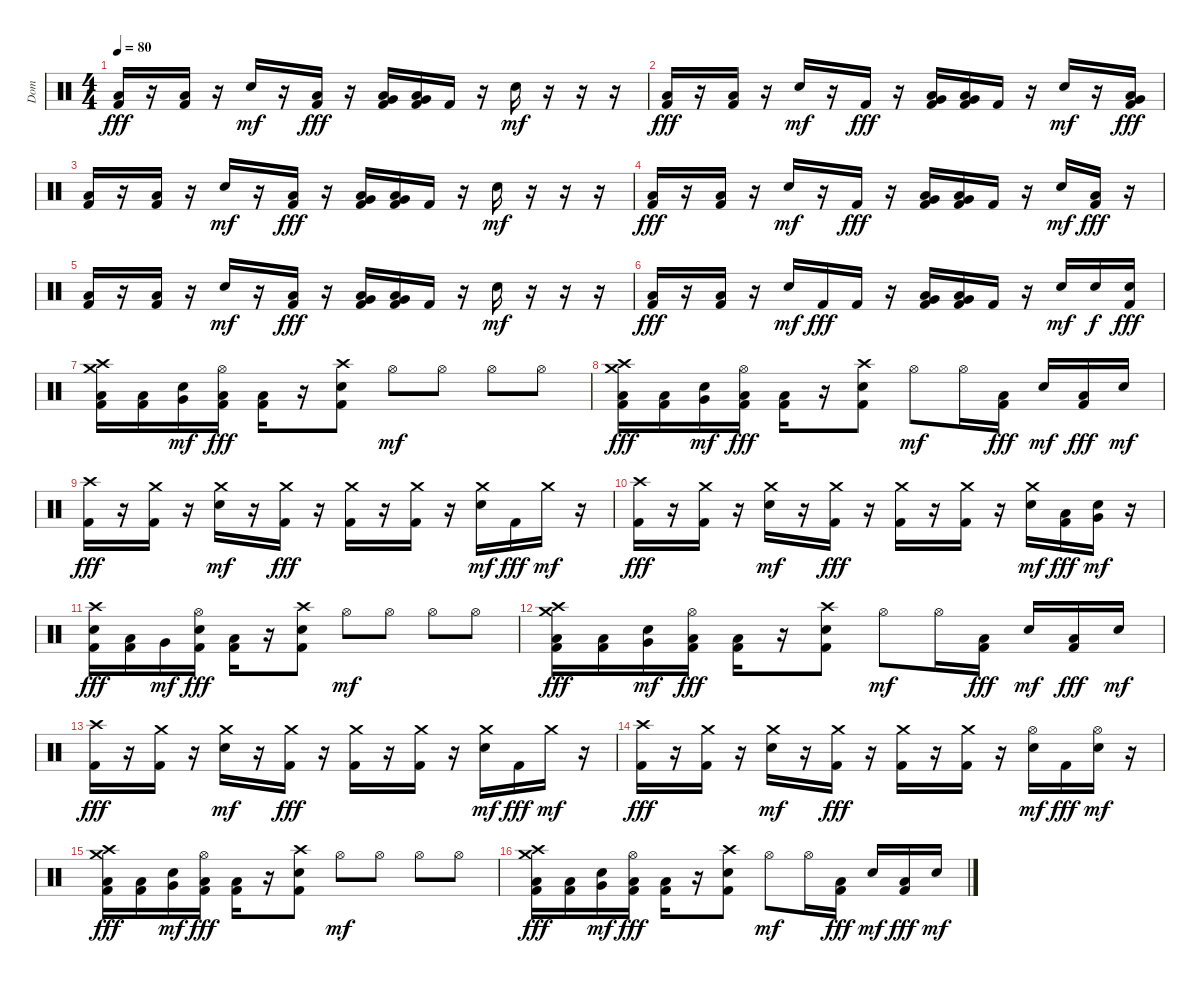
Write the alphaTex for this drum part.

\track ("Dom" "Dom") {instrument percussion}
\staff {score}
\articulation defaults
\ts (4 4)
\tempo 80
\clef neutral
\ks c
("Low Floor Tom (hit)" "Kick (hit) 2").16{dy fff} r.16 ("Low Floor Tom (hit)" "Kick (hit) 2").16 r.16 "Electric Snare (hit)".16{dy mf} r.16 ("Low Floor Tom (hit)" "Kick (hit) 2").16{dy fff} r.16 ("Very Low Tom (hit)" "Low Tom (hit)" "Kick (hit) 2").16 ("Low Floor Tom (hit)" "Very Low Tom (hit)" "Kick (hit) 2").16 "Kick (hit) 2".16 r.16 "Electric Snare (hit)".16{dy mf} r.16 r.16 r.16 |
("Low Floor Tom (hit)" "Kick (hit) 2").16{dy fff} r.16 ("Low Floor Tom (hit)" "Kick (hit) 2").16 r.16 "Electric Snare (hit)".16{dy mf} r.16 "Kick (hit) 2".16{dy fff} r.16 ("Very Low Tom (hit)" "Low Tom (hit)" "Kick (hit) 2").16 ("Low Floor Tom (hit)" "Very Low Tom (hit)" "Kick (hit) 2").16 "Kick (hit) 2".16 r.16 "Electric Snare (hit)".16{dy mf} r.16 ("Very Low Tom (hit)" "Low Floor Tom (hit)" "Kick (hit) 2").16{dy fff} |
("Low Floor Tom (hit)" "Kick (hit) 2").16 r.16 ("Low Floor Tom (hit)" "Kick (hit) 2").16 r.16 "Electric Snare (hit)".16{dy mf} r.16 ("Low Floor Tom (hit)" "Kick (hit) 2").16{dy fff} r.16 ("Very Low Tom (hit)" "Low Tom (hit)" "Kick (hit) 2").16 ("Low Floor Tom (hit)" "Very Low Tom (hit)" "Kick (hit) 2").16 "Kick (hit) 2".16 r.16 "Electric Snare (hit)".16{dy mf} r.16 r.16 r.16 |
("Low Floor Tom (hit)" "Kick (hit) 2").16{dy fff} r.16 ("Low Floor Tom (hit)" "Kick (hit) 2").16 r.16 "Electric Snare (hit)".16{dy mf} r.16 "Kick (hit) 2".16{dy fff} r.16 ("Very Low Tom (hit)" "Low Tom (hit)" "Kick (hit) 2").16 ("Low Floor Tom (hit)" "Very Low Tom (hit)" "Kick (hit) 2").16 "Kick (hit) 2".16 r.16 "Electric Snare (hit)".16{dy mf} ("Low Floor Tom (hit)" "Kick (hit) 2").16{dy fff} r.16 |
("Low Floor Tom (hit)" "Kick (hit) 2").16 r.16 ("Low Floor Tom (hit)" "Kick (hit) 2").16 r.16 "Electric Snare (hit)".16{dy mf} r.16 ("Low Floor Tom (hit)" "Kick (hit) 2").16{dy fff} r.16 ("Very Low Tom (hit)" "Low Tom (hit)" "Kick (hit) 2").16 ("Low Floor Tom (hit)" "Very Low Tom (hit)" "Kick (hit) 2").16 "Kick (hit) 2".16 r.16 "Electric Snare (hit)".16{dy mf} r.16 r.16 r.16 |
("Low Floor Tom (hit)" "Kick (hit) 2").16{dy fff} r.16 ("Low Floor Tom (hit)" "Kick (hit) 2").16 r.16 "Electric Snare (hit)".16{dy mf} "Kick (hit) 2".16{dy fff} "Kick (hit) 2".16 r.16 ("Very Low Tom (hit)" "Low Tom (hit)" "Kick (hit) 2").16 ("Low Floor Tom (hit)" "Very Low Tom (hit)" "Kick (hit) 2").16 "Kick (hit) 2".16 r.16 "Electric Snare (hit)".16{dy mf} "Electric Snare (hit)".16{dy f} ("Electric Snare (hit)" "Kick (hit) 2").16{dy fff} |
("Crash high (hit)" "Crash medium (hit)" "Low Floor Tom (hit)" "Kick (hit) 2").16 ("Low Floor Tom (hit)" "Kick (hit) 2").16 ("Electric Snare (hit)" "Very Low Tom (hit)").16{dy mf} ("Hi-Hat (open)" "Low Floor Tom (hit)" "Kick (hit) 2").16{dy fff} ("Low Floor Tom (hit)" "Kick (hit) 2").16 r.16 ("Crash high (hit)" "Electric Snare (hit)" "Kick (hit) 2").8 "Hi-Hat (open)".8{dy mf} "Hi-Hat (open)".8 "Hi-Hat (open)".8 "Hi-Hat (open)".8 |
("Crash high (hit)" "Crash medium (hit)" "Low Floor Tom (hit)" "Kick (hit) 2").16{dy fff} ("Low Floor Tom (hit)" "Kick (hit) 2").16 ("Electric Snare (hit)" "Very Low Tom (hit)").16{dy mf} ("Hi-Hat (open)" "Low Floor Tom (hit)" "Kick (hit) 2").16{dy fff} ("Low Floor Tom (hit)" "Kick (hit) 2").16 r.16 ("Crash high (hit)" "Electric Snare (hit)" "Kick (hit) 2").8 "Hi-Hat (open)".8{dy mf} "Hi-Hat (open)".16 ("Low Floor Tom (hit)" "Kick (hit) 2").16{dy fff} "Electric Snare (hit)".16{dy mf} ("Low Tom (hit)" "Kick (hit) 2").16{dy fff} "Electric Snare (hit)".16{dy mf} |
("Crash high (hit)" "Kick (hit) 2").16{dy fff} r.16 ("Crash medium (hit)" "Kick (hit) 2").16 r.16 ("Crash medium (hit)" "Electric Snare (hit)").16{dy mf} r.16 ("Crash medium (hit)" "Kick (hit) 2").16{dy fff} r.16 ("Crash medium (hit)" "Kick (hit) 2").16 r.16 ("Crash medium (hit)" "Kick (hit) 2").16 r.16 ("Crash medium (hit)" "Electric Snare (hit)").16{dy mf} "Kick (hit) 2".16{dy fff} "Crash medium (hit)".16{dy mf} r.16 |
("Crash high (hit)" "Kick (hit) 2").16{dy fff} r.16 ("Crash medium (hit)" "Kick (hit) 2").16 r.16 ("Crash medium (hit)" "Electric Snare (hit)").16{dy mf} r.16 ("Crash medium (hit)" "Kick (hit) 2").16{dy fff} r.16 ("Crash medium (hit)" "Kick (hit) 2").16 r.16 ("Crash medium (hit)" "Kick (hit) 2").16 r.16 ("Crash medium (hit)" "Electric Snare (hit)").16{dy mf} ("Low Tom (hit)" "Kick (hit) 2").16{dy fff} ("Electric Snare (hit)" "Very Low Tom (hit)").16{dy mf} r.16 |
("Crash high (hit)" "Electric Snare (hit)" "Kick (hit) 2").16{dy fff} ("Low Floor Tom (hit)" "Kick (hit) 2").16 "Very Low Tom (hit)".16{dy mf} ("Hi-Hat (open)" "Electric Snare (hit)" "Kick (hit) 2").16{dy fff} ("Low Floor Tom (hit)" "Kick (hit) 2").16 r.16 ("Crash high (hit)" "Electric Snare (hit)" "Kick (hit) 2").8 "Hi-Hat (open)".8{dy mf} "Hi-Hat (open)".8 "Hi-Hat (open)".8 "Hi-Hat (open)".8 |
("Crash high (hit)" "Crash medium (hit)" "Low Floor Tom (hit)" "Kick (hit) 2").16{dy fff} ("Low Floor Tom (hit)" "Kick (hit) 2").16 ("Electric Snare (hit)" "Very Low Tom (hit)").16{dy mf} ("Hi-Hat (open)" "Low Floor Tom (hit)" "Kick (hit) 2").16{dy fff} ("Low Floor Tom (hit)" "Kick (hit) 2").16 r.16 ("Crash high (hit)" "Electric Snare (hit)" "Kick (hit) 2").8 "Hi-Hat (open)".8{dy mf} "Hi-Hat (open)".16 ("Low Floor Tom (hit)" "Kick (hit) 2").16{dy fff} "Electric Snare (hit)".16{dy mf} ("Low Tom (hit)" "Kick (hit) 2").16{dy fff} "Electric Snare (hit)".16{dy mf} |
("Crash high (hit)" "Kick (hit) 2").16{dy fff} r.16 ("Crash medium (hit)" "Kick (hit) 2").16 r.16 ("Crash medium (hit)" "Electric Snare (hit)").16{dy mf} r.16 ("Crash medium (hit)" "Kick (hit) 2").16{dy fff} r.16 ("Crash medium (hit)" "Kick (hit) 2").16 r.16 ("Crash medium (hit)" "Kick (hit) 2").16 r.16 ("Crash medium (hit)" "Electric Snare (hit)").16{dy mf} "Kick (hit) 2".16{dy fff} "Crash medium (hit)".16{dy mf} r.16 |
("Crash high (hit)" "Kick (hit) 2").16{dy fff} r.16 ("Crash medium (hit)" "Kick (hit) 2").16 r.16 ("Crash medium (hit)" "Electric Snare (hit)").16{dy mf} r.16 ("Crash medium (hit)" "Kick (hit) 2").16{dy fff} r.16 ("Crash medium (hit)" "Kick (hit) 2").16 r.16 ("Crash medium (hit)" "Kick (hit) 2").16 r.16 ("Hi-Hat (open)" "Electric Snare (hit)").16{dy mf} "Kick (hit) 2".16{dy fff} ("Hi-Hat (open)" "Electric Snare (hit)").16{dy mf} r.16 |
("Crash high (hit)" "Crash medium (hit)" "Low Floor Tom (hit)" "Kick (hit) 2").16{dy fff} ("Low Floor Tom (hit)" "Kick (hit) 2").16 ("Electric Snare (hit)" "Very Low Tom (hit)").16{dy mf} ("Hi-Hat (open)" "Low Floor Tom (hit)" "Kick (hit) 2").16{dy fff} ("Low Floor Tom (hit)" "Kick (hit) 2").16 r.16 ("Crash high (hit)" "Electric Snare (hit)" "Kick (hit) 2").8 "Hi-Hat (open)".8{dy mf} "Hi-Hat (open)".8 "Hi-Hat (open)".8 "Hi-Hat (open)".8 |
("Crash high (hit)" "Crash medium (hit)" "Low Floor Tom (hit)" "Kick (hit) 2").16{dy fff} ("Low Floor Tom (hit)" "Kick (hit) 2").16 ("Electric Snare (hit)" "Very Low Tom (hit)").16{dy mf} ("Hi-Hat (open)" "Low Floor Tom (hit)" "Kick (hit) 2").16{dy fff} ("Low Floor Tom (hit)" "Kick (hit) 2").16 r.16 ("Crash high (hit)" "Electric Snare (hit)" "Kick (hit) 2").8 "Hi-Hat (open)".8{dy mf} "Hi-Hat (open)".16 ("Low Floor Tom (hit)" "Kick (hit) 2").16{dy fff} "Electric Snare (hit)".16{dy mf} ("Low Tom (hit)" "Kick (hit) 2").16{dy fff} "Electric Snare (hit)".16{dy mf}
